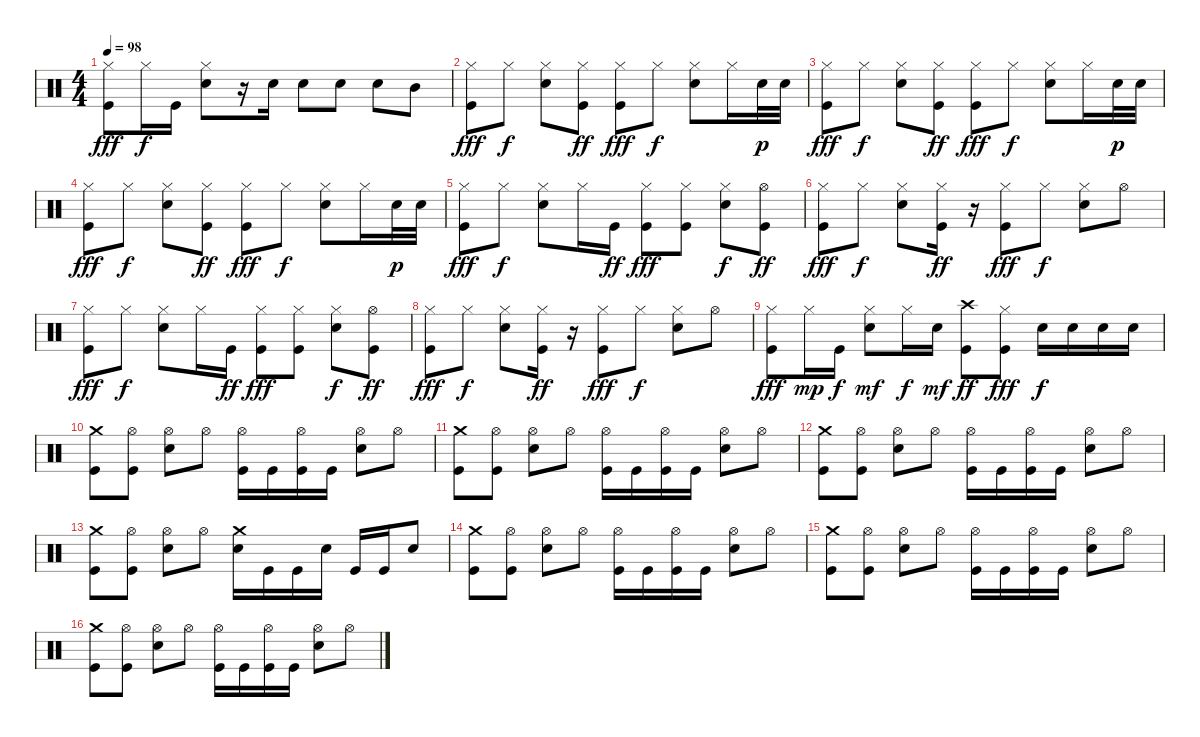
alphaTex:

\track "" {instrument percussion}
\staff {score}
\articulation defaults
\ts (4 4)
\tempo 98
\clef neutral
\ks c
("Hi-Hat (closed)" "Kick (hit)").8{dy fff} "Hi-Hat (closed)".16{dy f} "Kick (hit)".16 ("Hi-Hat (closed)" "Electric Snare (hit)").8 r.16 "Electric Snare (hit)".16 "Electric Snare (hit)".8 "Electric Snare (hit)".8 "Electric Snare (hit)".8 "Mid Tom (hit)".8 |
("Hi-Hat (closed)" "Kick (hit)").8{dy fff} "Hi-Hat (closed)".8{dy f} ("Hi-Hat (closed)" "Electric Snare (hit)").8 ("Hi-Hat (closed)" "Kick (hit)").8{dy ff} ("Kick (hit)" "Hi-Hat (closed)").8{dy fff} "Hi-Hat (closed)".8{dy f} ("Hi-Hat (closed)" "Electric Snare (hit)").8 "Hi-Hat (closed)".16 "Electric Snare (hit)".32{dy p} "Electric Snare (hit)".32 |
("Hi-Hat (closed)" "Kick (hit)").8{dy fff} "Hi-Hat (closed)".8{dy f} ("Hi-Hat (closed)" "Electric Snare (hit)").8 ("Hi-Hat (closed)" "Kick (hit)").8{dy ff} ("Kick (hit)" "Hi-Hat (closed)").8{dy fff} "Hi-Hat (closed)".8{dy f} ("Hi-Hat (closed)" "Electric Snare (hit)").8 "Hi-Hat (closed)".16 "Electric Snare (hit)".32{dy p} "Electric Snare (hit)".32 |
("Hi-Hat (closed)" "Kick (hit)").8{dy fff} "Hi-Hat (closed)".8{dy f} ("Hi-Hat (closed)" "Electric Snare (hit)").8 ("Hi-Hat (closed)" "Kick (hit)").8{dy ff} ("Kick (hit)" "Hi-Hat (closed)").8{dy fff} "Hi-Hat (closed)".8{dy f} ("Hi-Hat (closed)" "Electric Snare (hit)").8 "Hi-Hat (closed)".16 "Electric Snare (hit)".32{dy p} "Electric Snare (hit)".32 |
("Hi-Hat (closed)" "Kick (hit)").8{dy fff} "Hi-Hat (closed)".8{dy f} ("Hi-Hat (closed)" "Electric Snare (hit)").8 "Hi-Hat (closed)".16 "Kick (hit)".16{dy ff} ("Kick (hit)" "Hi-Hat (closed)").8{dy fff} ("Hi-Hat (closed)" "Kick (hit)").8 ("Hi-Hat (closed)" "Electric Snare (hit)").8{dy f} ("Hi-Hat (open)" "Kick (hit)").8{dy ff} |
("Hi-Hat (closed)" "Kick (hit)").8{dy fff} "Hi-Hat (closed)".8{dy f} ("Hi-Hat (closed)" "Electric Snare (hit)").8 ("Hi-Hat (closed)" "Kick (hit)").16{dy ff} r.16 ("Kick (hit)" "Hi-Hat (closed)").8{dy fff} "Hi-Hat (closed)".8{dy f} ("Hi-Hat (closed)" "Electric Snare (hit)").8 "Hi-Hat (open)".8 |
("Hi-Hat (closed)" "Kick (hit)").8{dy fff} "Hi-Hat (closed)".8{dy f} ("Hi-Hat (closed)" "Electric Snare (hit)").8 "Hi-Hat (closed)".16 "Kick (hit)".16{dy ff} ("Kick (hit)" "Hi-Hat (closed)").8{dy fff} ("Hi-Hat (closed)" "Kick (hit)").8 ("Hi-Hat (closed)" "Electric Snare (hit)").8{dy f} ("Hi-Hat (open)" "Kick (hit)").8{dy ff} |
("Hi-Hat (closed)" "Kick (hit)").8{dy fff} "Hi-Hat (closed)".8{dy f} ("Hi-Hat (closed)" "Electric Snare (hit)").8 ("Hi-Hat (closed)" "Kick (hit)").16{dy ff} r.16 ("Kick (hit)" "Hi-Hat (closed)").8{dy fff} "Hi-Hat (closed)".8{dy f} ("Hi-Hat (closed)" "Electric Snare (hit)").8 "Hi-Hat (open)".8 |
("Hi-Hat (closed)" "Kick (hit)").8{dy fff} "Hi-Hat (closed)".16{dy mp} "Kick (hit)".16{dy f} ("Hi-Hat (closed)" "Electric Snare (hit)").8{dy mf} "Hi-Hat (closed)".16{dy f} "Electric Snare (hit)".16{dy mf} ("Kick (hit)" "Crash high (hit)").8{dy ff} ("Hi-Hat (closed)" "Kick (hit)").8{dy fff} "Electric Snare (hit)".16{dy f} "Electric Snare (hit)".16 "Electric Snare (hit)".16 "Electric Snare (hit)".16 |
("Crash medium (hit)" "Kick (hit)").8 ("Hi-Hat (open)" "Kick (hit)").8 ("Hi-Hat (open)" "Electric Snare (hit)").8 "Hi-Hat (open)".8 ("Hi-Hat (open)" "Kick (hit)").16 "Kick (hit)".16 ("Hi-Hat (open)" "Kick (hit)").16 "Kick (hit)".16 ("Hi-Hat (open)" "Electric Snare (hit)").8 "Hi-Hat (open)".8 |
("Crash medium (hit)" "Kick (hit)").8 ("Hi-Hat (open)" "Kick (hit)").8 ("Hi-Hat (open)" "Electric Snare (hit)").8 "Hi-Hat (open)".8 ("Hi-Hat (open)" "Kick (hit)").16 "Kick (hit)".16 ("Hi-Hat (open)" "Kick (hit)").16 "Kick (hit)".16 ("Hi-Hat (open)" "Electric Snare (hit)").8 "Hi-Hat (open)".8 |
("Crash medium (hit)" "Kick (hit)").8 ("Hi-Hat (open)" "Kick (hit)").8 ("Hi-Hat (open)" "Electric Snare (hit)").8 "Hi-Hat (open)".8 ("Hi-Hat (open)" "Kick (hit)").16 "Kick (hit)".16 ("Hi-Hat (open)" "Kick (hit)").16 "Kick (hit)".16 ("Hi-Hat (open)" "Electric Snare (hit)").8 "Hi-Hat (open)".8 |
("Crash medium (hit)" "Kick (hit)").8 ("Hi-Hat (open)" "Kick (hit)").8 ("Hi-Hat (open)" "Electric Snare (hit)").8 "Hi-Hat (open)".8 ("Crash medium (hit)" "Electric Snare (hit)").16 "Kick (hit)".16 "Kick (hit)".16 "Electric Snare (hit)".16 "Kick (hit)".16 "Kick (hit)".16 "Electric Snare (hit)".8 |
("Crash medium (hit)" "Kick (hit)").8 ("Hi-Hat (open)" "Kick (hit)").8 ("Hi-Hat (open)" "Electric Snare (hit)").8 "Hi-Hat (open)".8 ("Hi-Hat (open)" "Kick (hit)").16 "Kick (hit)".16 ("Hi-Hat (open)" "Kick (hit)").16 "Kick (hit)".16 ("Hi-Hat (open)" "Electric Snare (hit)").8 "Hi-Hat (open)".8 |
("Crash medium (hit)" "Kick (hit)").8 ("Hi-Hat (open)" "Kick (hit)").8 ("Hi-Hat (open)" "Electric Snare (hit)").8 "Hi-Hat (open)".8 ("Hi-Hat (open)" "Kick (hit)").16 "Kick (hit)".16 ("Hi-Hat (open)" "Kick (hit)").16 "Kick (hit)".16 ("Hi-Hat (open)" "Electric Snare (hit)").8 "Hi-Hat (open)".8 |
("Crash medium (hit)" "Kick (hit)").8 ("Hi-Hat (open)" "Kick (hit)").8 ("Hi-Hat (open)" "Electric Snare (hit)").8 "Hi-Hat (open)".8 ("Hi-Hat (open)" "Kick (hit)").16 "Kick (hit)".16 ("Hi-Hat (open)" "Kick (hit)").16 "Kick (hit)".16 ("Hi-Hat (open)" "Electric Snare (hit)").8 "Hi-Hat (open)".8
